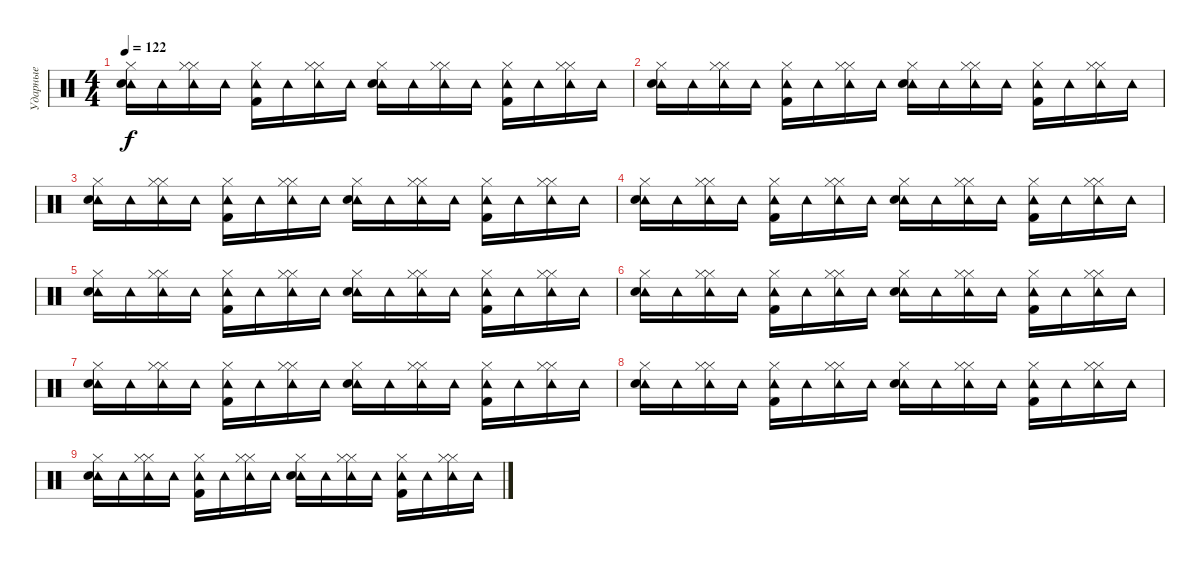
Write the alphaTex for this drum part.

\track ("Ударные" "Ударные") {instrument percussion}
\staff {score}
\articulation defaults
\ts (4 4)
\tempo 122
\clef neutral
\ks c
("Tambourine (hit)" "Hi-Hat (closed)" "Snare (hit) 2").16{dy f} "Tambourine (hit)".16 ("Tambourine (hit)" "Hi-Hat (closed)" "Hi-Hat (closed)").16 "Tambourine (hit)".16 ("Tambourine (hit)" "Hi-Hat (closed)" "Kick (hit) 2").16 "Tambourine (hit)".16 ("Tambourine (hit)" "Hi-Hat (closed)" "Hi-Hat (closed)").16 "Tambourine (hit)".16 ("Tambourine (hit)" "Hi-Hat (closed)" "Snare (hit) 2").16 "Tambourine (hit)".16 ("Tambourine (hit)" "Hi-Hat (closed)" "Hi-Hat (closed)").16 "Tambourine (hit)".16 ("Tambourine (hit)" "Hi-Hat (closed)" "Kick (hit) 2").16 "Tambourine (hit)".16 ("Tambourine (hit)" "Hi-Hat (closed)" "Hi-Hat (closed)").16 "Tambourine (hit)".16 |
("Tambourine (hit)" "Hi-Hat (closed)" "Snare (hit) 2").16 "Tambourine (hit)".16 ("Tambourine (hit)" "Hi-Hat (closed)" "Hi-Hat (closed)").16 "Tambourine (hit)".16 ("Tambourine (hit)" "Hi-Hat (closed)" "Kick (hit) 2").16 "Tambourine (hit)".16 ("Tambourine (hit)" "Hi-Hat (closed)" "Hi-Hat (closed)").16 "Tambourine (hit)".16 ("Tambourine (hit)" "Hi-Hat (closed)" "Snare (hit) 2").16 "Tambourine (hit)".16 ("Tambourine (hit)" "Hi-Hat (closed)" "Hi-Hat (closed)").16 "Tambourine (hit)".16 ("Tambourine (hit)" "Hi-Hat (closed)" "Kick (hit) 2").16 "Tambourine (hit)".16 ("Tambourine (hit)" "Hi-Hat (closed)" "Hi-Hat (closed)").16 "Tambourine (hit)".16 |
("Tambourine (hit)" "Hi-Hat (closed)" "Snare (hit) 2").16 "Tambourine (hit)".16 ("Tambourine (hit)" "Hi-Hat (closed)" "Hi-Hat (closed)").16 "Tambourine (hit)".16 ("Tambourine (hit)" "Hi-Hat (closed)" "Kick (hit) 2").16 "Tambourine (hit)".16 ("Tambourine (hit)" "Hi-Hat (closed)" "Hi-Hat (closed)").16 "Tambourine (hit)".16 ("Tambourine (hit)" "Hi-Hat (closed)" "Snare (hit) 2").16 "Tambourine (hit)".16 ("Tambourine (hit)" "Hi-Hat (closed)" "Hi-Hat (closed)").16 "Tambourine (hit)".16 ("Tambourine (hit)" "Hi-Hat (closed)" "Kick (hit) 2").16 "Tambourine (hit)".16 ("Tambourine (hit)" "Hi-Hat (closed)" "Hi-Hat (closed)").16 "Tambourine (hit)".16 |
("Tambourine (hit)" "Hi-Hat (closed)" "Snare (hit) 2").16 "Tambourine (hit)".16 ("Tambourine (hit)" "Hi-Hat (closed)" "Hi-Hat (closed)").16 "Tambourine (hit)".16 ("Tambourine (hit)" "Hi-Hat (closed)" "Kick (hit) 2").16 "Tambourine (hit)".16 ("Tambourine (hit)" "Hi-Hat (closed)" "Hi-Hat (closed)").16 "Tambourine (hit)".16 ("Tambourine (hit)" "Hi-Hat (closed)" "Snare (hit) 2").16 "Tambourine (hit)".16 ("Tambourine (hit)" "Hi-Hat (closed)" "Hi-Hat (closed)").16 "Tambourine (hit)".16 ("Tambourine (hit)" "Hi-Hat (closed)" "Kick (hit) 2").16 "Tambourine (hit)".16 ("Tambourine (hit)" "Hi-Hat (closed)" "Hi-Hat (closed)").16 "Tambourine (hit)".16 |
("Tambourine (hit)" "Hi-Hat (closed)" "Snare (hit) 2").16 "Tambourine (hit)".16 ("Tambourine (hit)" "Hi-Hat (closed)" "Hi-Hat (closed)").16 "Tambourine (hit)".16 ("Tambourine (hit)" "Hi-Hat (closed)" "Kick (hit) 2").16 "Tambourine (hit)".16 ("Tambourine (hit)" "Hi-Hat (closed)" "Hi-Hat (closed)").16 "Tambourine (hit)".16 ("Tambourine (hit)" "Hi-Hat (closed)" "Snare (hit) 2").16 "Tambourine (hit)".16 ("Tambourine (hit)" "Hi-Hat (closed)" "Hi-Hat (closed)").16 "Tambourine (hit)".16 ("Tambourine (hit)" "Hi-Hat (closed)" "Kick (hit) 2").16 "Tambourine (hit)".16 ("Tambourine (hit)" "Hi-Hat (closed)" "Hi-Hat (closed)").16 "Tambourine (hit)".16 |
("Tambourine (hit)" "Hi-Hat (closed)" "Snare (hit) 2").16 "Tambourine (hit)".16 ("Tambourine (hit)" "Hi-Hat (closed)" "Hi-Hat (closed)").16 "Tambourine (hit)".16 ("Tambourine (hit)" "Hi-Hat (closed)" "Kick (hit) 2").16 "Tambourine (hit)".16 ("Tambourine (hit)" "Hi-Hat (closed)" "Hi-Hat (closed)").16 "Tambourine (hit)".16 ("Tambourine (hit)" "Hi-Hat (closed)" "Snare (hit) 2").16 "Tambourine (hit)".16 ("Tambourine (hit)" "Hi-Hat (closed)" "Hi-Hat (closed)").16 "Tambourine (hit)".16 ("Tambourine (hit)" "Hi-Hat (closed)" "Kick (hit) 2").16 "Tambourine (hit)".16 ("Tambourine (hit)" "Hi-Hat (closed)" "Hi-Hat (closed)").16 "Tambourine (hit)".16 |
("Tambourine (hit)" "Hi-Hat (closed)" "Snare (hit) 2").16 "Tambourine (hit)".16 ("Tambourine (hit)" "Hi-Hat (closed)" "Hi-Hat (closed)").16 "Tambourine (hit)".16 ("Tambourine (hit)" "Hi-Hat (closed)" "Kick (hit) 2").16 "Tambourine (hit)".16 ("Tambourine (hit)" "Hi-Hat (closed)" "Hi-Hat (closed)").16 "Tambourine (hit)".16 ("Tambourine (hit)" "Hi-Hat (closed)" "Snare (hit) 2").16 "Tambourine (hit)".16 ("Tambourine (hit)" "Hi-Hat (closed)" "Hi-Hat (closed)").16 "Tambourine (hit)".16 ("Tambourine (hit)" "Hi-Hat (closed)" "Kick (hit) 2").16 "Tambourine (hit)".16 ("Tambourine (hit)" "Hi-Hat (closed)" "Hi-Hat (closed)").16 "Tambourine (hit)".16 |
("Tambourine (hit)" "Hi-Hat (closed)" "Snare (hit) 2").16 "Tambourine (hit)".16 ("Tambourine (hit)" "Hi-Hat (closed)" "Hi-Hat (closed)").16 "Tambourine (hit)".16 ("Tambourine (hit)" "Hi-Hat (closed)" "Kick (hit) 2").16 "Tambourine (hit)".16 ("Tambourine (hit)" "Hi-Hat (closed)" "Hi-Hat (closed)").16 "Tambourine (hit)".16 ("Tambourine (hit)" "Hi-Hat (closed)" "Snare (hit) 2").16 "Tambourine (hit)".16 ("Tambourine (hit)" "Hi-Hat (closed)" "Hi-Hat (closed)").16 "Tambourine (hit)".16 ("Tambourine (hit)" "Hi-Hat (closed)" "Kick (hit) 2").16 "Tambourine (hit)".16 ("Tambourine (hit)" "Hi-Hat (closed)" "Hi-Hat (closed)").16 "Tambourine (hit)".16 |
("Tambourine (hit)" "Hi-Hat (closed)" "Snare (hit) 2").16 "Tambourine (hit)".16 ("Tambourine (hit)" "Hi-Hat (closed)" "Hi-Hat (closed)").16 "Tambourine (hit)".16 ("Tambourine (hit)" "Hi-Hat (closed)" "Kick (hit) 2").16 "Tambourine (hit)".16 ("Tambourine (hit)" "Hi-Hat (closed)" "Hi-Hat (closed)").16 "Tambourine (hit)".16 ("Tambourine (hit)" "Hi-Hat (closed)" "Snare (hit) 2").16 "Tambourine (hit)".16 ("Tambourine (hit)" "Hi-Hat (closed)" "Hi-Hat (closed)").16 "Tambourine (hit)".16 ("Tambourine (hit)" "Hi-Hat (closed)" "Kick (hit) 2").16 "Tambourine (hit)".16 ("Tambourine (hit)" "Hi-Hat (closed)" "Hi-Hat (closed)").16 "Tambourine (hit)".16
